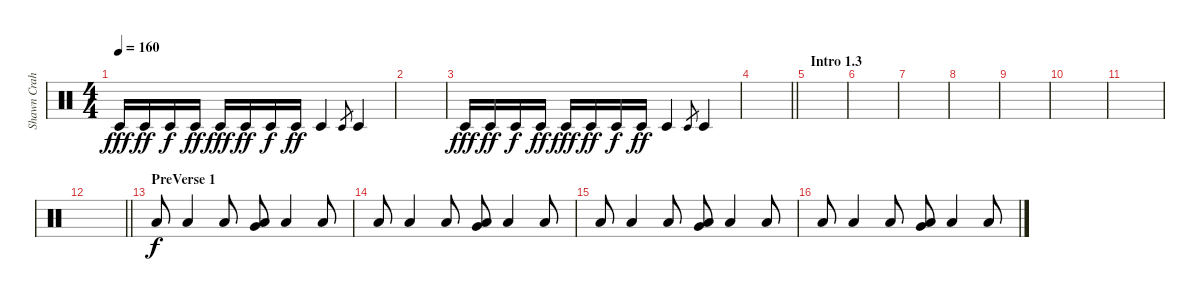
\track ("Shawn Crahan" "Shawn Crah") {instrument percussion}
\staff {score}
\articulation defaults
\ts (4 4)
\tempo 160
\clef neutral
\ks c "Timbale low (hit)".16{dy fff} "Timbale low (hit)".16{dy ff} "Timbale low (hit)".16{dy f} "Timbale low (hit)".16{dy ff} "Timbale low (hit)".16{dy fff} "Timbale low (hit)".16{dy ff} "Timbale low (hit)".16{dy f} "Timbale low (hit)".16{dy ff} "Timbale low (hit)".4 "Timbale low (hit)".8{gr} "Timbale low (hit)".4
|
|
"Timbale low (hit)".16{dy fff} "Timbale low (hit)".16{dy ff} "Timbale low (hit)".16{dy f} "Timbale low (hit)".16{dy ff} "Timbale low (hit)".16{dy fff} "Timbale low (hit)".16{dy ff} "Timbale low (hit)".16{dy f} "Timbale low (hit)".16{dy ff} "Timbale low (hit)".4 "Timbale low (hit)".8{gr} "Timbale low (hit)".4 |
\barLineRight lightlight
|
\section ("" "Intro 1.3")
|
|
|
|
|
|
|
\barLineRight lightlight
|
\section ("" "PreVerse 1")
"Low Floor Tom (hit)".8{dy f} "Low Floor Tom (hit)".4 "Low Floor Tom (hit)".8 ("Very Low Tom (hit)" "Low Floor Tom (hit)").8 "Low Floor Tom (hit)".4 "Low Floor Tom (hit)".8 |
"Low Floor Tom (hit)".8 "Low Floor Tom (hit)".4 "Low Floor Tom (hit)".8 ("Very Low Tom (hit)" "Low Floor Tom (hit)").8 "Low Floor Tom (hit)".4 "Low Floor Tom (hit)".8 |
"Low Floor Tom (hit)".8 "Low Floor Tom (hit)".4 "Low Floor Tom (hit)".8 ("Very Low Tom (hit)" "Low Floor Tom (hit)").8 "Low Floor Tom (hit)".4 "Low Floor Tom (hit)".8 |
"Low Floor Tom (hit)".8 "Low Floor Tom (hit)".4 "Low Floor Tom (hit)".8 ("Very Low Tom (hit)" "Low Floor Tom (hit)").8 "Low Floor Tom (hit)".4 "Low Floor Tom (hit)".8
